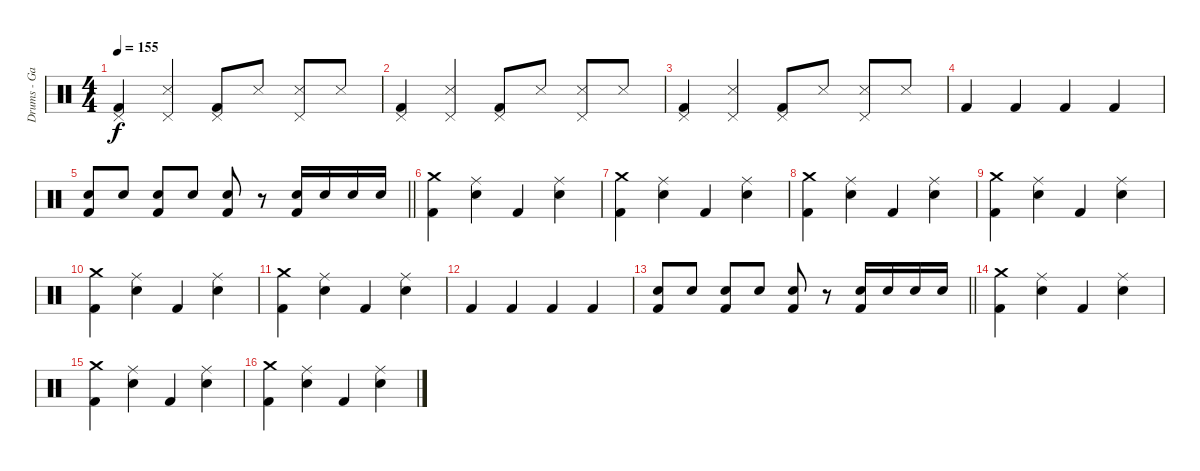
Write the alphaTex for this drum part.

\track ("Drums - Gary" "Drums - Ga") {instrument percussion}
\staff {score}
\articulation defaults
\ts (4 4)
\tempo 155
\clef neutral
\ks c
("Pedal Hi-Hat (hit)" "Kick (hit) 2").4{dy f} ("Snare (side stick) 3" "Pedal Hi-Hat (hit)").4 ("Pedal Hi-Hat (hit)" "Kick (hit) 2").8 "Snare (side stick) 3".8 ("Snare (side stick) 3" "Pedal Hi-Hat (hit)").8 "Snare (side stick) 3".8 |
("Pedal Hi-Hat (hit)" "Kick (hit) 2").4 ("Snare (side stick) 3" "Pedal Hi-Hat (hit)").4 ("Pedal Hi-Hat (hit)" "Kick (hit) 2").8 "Snare (side stick) 3".8 ("Snare (side stick) 3" "Pedal Hi-Hat (hit)").8 "Snare (side stick) 3".8 |
("Pedal Hi-Hat (hit)" "Kick (hit) 2").4 ("Snare (side stick) 3" "Pedal Hi-Hat (hit)").4 ("Pedal Hi-Hat (hit)" "Kick (hit) 2").8 "Snare (side stick) 3".8 ("Snare (side stick) 3" "Pedal Hi-Hat (hit)").8 "Snare (side stick) 3".8 |
"Kick (hit) 2".4 "Kick (hit) 2".4 "Kick (hit) 2".4 "Kick (hit) 2".4 |
\barLineRight lightlight
("Snare (hit) 2" "Kick (hit) 2").8 "Snare (hit) 2".8 ("Snare (hit) 2" "Kick (hit) 2").8 "Snare (hit) 2".8 ("Snare (hit) 2" "Kick (hit) 2").8 r.8 ("Snare (hit) 2" "Kick (hit) 2").16 "Snare (hit) 2".16 "Snare (hit) 2".16 "Snare (hit) 2".16 |
("Crash medium (hit)" "Kick (hit) 2").4 ("Snare (hit) 2" "Ride (middle)").4 "Kick (hit) 2".4 ("Snare (hit) 2" "Ride (middle)").4 |
("Crash medium (hit)" "Kick (hit) 2").4 ("Snare (hit) 2" "Ride (middle)").4 "Kick (hit) 2".4 ("Snare (hit) 2" "Ride (middle)").4 |
("Crash medium (hit)" "Kick (hit) 2").4 ("Snare (hit) 2" "Ride (middle)").4 "Kick (hit) 2".4 ("Snare (hit) 2" "Ride (middle)").4 |
("Crash medium (hit)" "Kick (hit) 2").4 ("Snare (hit) 2" "Ride (middle)").4 "Kick (hit) 2".4 ("Snare (hit) 2" "Ride (middle)").4 |
("Crash medium (hit)" "Kick (hit) 2").4 ("Snare (hit) 2" "Ride (middle)").4 "Kick (hit) 2".4 ("Snare (hit) 2" "Ride (middle)").4 |
("Crash medium (hit)" "Kick (hit) 2").4 ("Snare (hit) 2" "Ride (middle)").4 "Kick (hit) 2".4 ("Snare (hit) 2" "Ride (middle)").4 |
"Kick (hit) 2".4 "Kick (hit) 2".4 "Kick (hit) 2".4 "Kick (hit) 2".4 |
\barLineRight lightlight
("Snare (hit) 2" "Kick (hit) 2").8 "Snare (hit) 2".8 ("Snare (hit) 2" "Kick (hit) 2").8 "Snare (hit) 2".8 ("Snare (hit) 2" "Kick (hit) 2").8 r.8 ("Snare (hit) 2" "Kick (hit) 2").16 "Snare (hit) 2".16 "Snare (hit) 2".16 "Snare (hit) 2".16 |
("Crash medium (hit)" "Kick (hit) 2").4 ("Snare (hit) 2" "Ride (middle)").4 "Kick (hit) 2".4 ("Snare (hit) 2" "Ride (middle)").4 |
("Crash medium (hit)" "Kick (hit) 2").4 ("Snare (hit) 2" "Ride (middle)").4 "Kick (hit) 2".4 ("Snare (hit) 2" "Ride (middle)").4 |
("Crash medium (hit)" "Kick (hit) 2").4 ("Snare (hit) 2" "Ride (middle)").4 "Kick (hit) 2".4 ("Snare (hit) 2" "Ride (middle)").4
